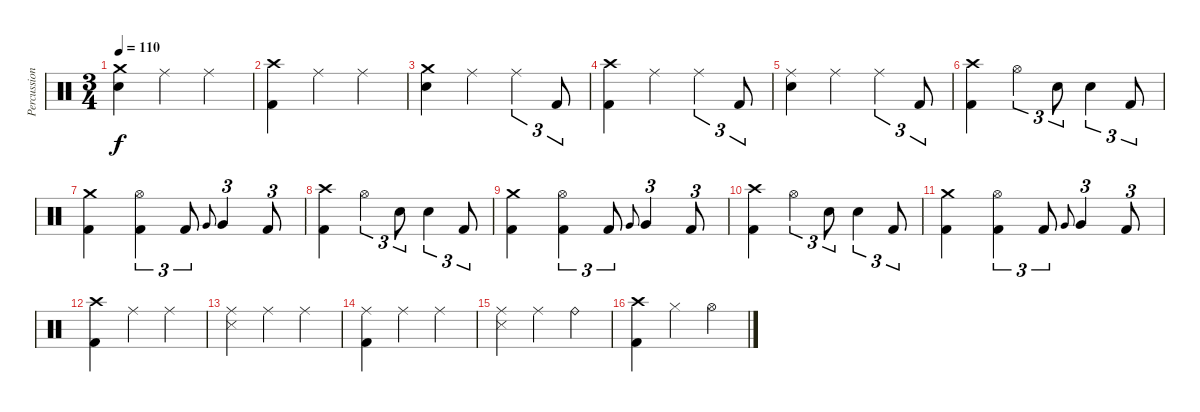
\track ("Percussion" "Percussion") {instrument percussion}
\staff {score}
\articulation defaults
\ts (3 4)
\tempo 110
\clef neutral
\ks c
("Crash medium (hit)" "Snare (hit) 2").4{dy f} "Ride (middle)".4 "Ride (middle)".4 |
("Crash high (hit)" "Kick (hit) 2").4 "Ride (middle)".4 "Ride (middle)".4 |
("Crash medium (hit)" "Snare (hit) 2").4 "Ride (middle)".4 "Ride (middle)".4{tu (3 2)} "Kick (hit) 2".8{tu (3 2)} |
("Crash high (hit)" "Kick (hit) 2").4 "Ride (middle)".4 "Ride (middle)".4{tu (3 2)} "Kick (hit) 2".8{tu (3 2)} |
("Ride (middle)" "Snare (hit) 2").4 "Ride (middle)".4 "Ride (middle)".4{tu (3 2)} "Kick (hit) 2".8{tu (3 2)} |
("Crash high (hit)" "Kick (hit) 2").4 "Hi-Hat (open)".4{tu (3 2)} "Snare (hit) 2".8{tu (3 2)} "Snare (hit) 2".4{tu (3 2)} "Kick (hit) 2".8{tu (3 2)} |
("Crash medium (hit)" "Kick (hit) 2").4 ("Hi-Hat (open)" "Kick (hit) 2").4{tu (3 2)} "Kick (hit) 2".8{tu (3 2)} "Very Low Tom (hit)".8{gr onbeat} "Very Low Tom (hit)".4{tu (3 2)} "Kick (hit) 2".8{tu (3 2)} |
("Crash high (hit)" "Kick (hit) 2").4 "Hi-Hat (open)".4{tu (3 2)} "Snare (hit) 2".8{tu (3 2)} "Snare (hit) 2".4{tu (3 2)} "Kick (hit) 2".8{tu (3 2)} |
("Crash medium (hit)" "Kick (hit) 2").4 ("Hi-Hat (open)" "Kick (hit) 2").4{tu (3 2)} "Kick (hit) 2".8{tu (3 2)} "Very Low Tom (hit)".8{gr onbeat} "Very Low Tom (hit)".4{tu (3 2)} "Kick (hit) 2".8{tu (3 2)} |
("Crash high (hit)" "Kick (hit) 2").4 "Hi-Hat (open)".4{tu (3 2)} "Snare (hit) 2".8{tu (3 2)} "Snare (hit) 2".4{tu (3 2)} "Kick (hit) 2".8{tu (3 2)} |
("Crash medium (hit)" "Kick (hit) 2").4 ("Hi-Hat (open)" "Kick (hit) 2").4{tu (3 2)} "Kick (hit) 2".8{tu (3 2)} "Very Low Tom (hit)".8{gr onbeat} "Very Low Tom (hit)".4{tu (3 2)} "Kick (hit) 2".8{tu (3 2)} |
("Crash high (hit)" "Kick (hit) 2").4 "Ride (middle)".4 "Ride (middle)".4 |
("Ride (middle)" "Snare (side stick) 3").4 "Ride (middle)".4 "Ride (middle)".4 |
("Ride (middle)" "Kick (hit) 2").4 "Ride (middle)".4 "Ride (middle)".4 |
("Ride (middle)" "Snare (side stick) 3").4 "Ride (middle)".4 "Ride (bell)".4 |
("Crash high (hit)" "Kick (hit) 2").4 "Hi-Hat (closed)".4 "Hi-Hat (open)".4
